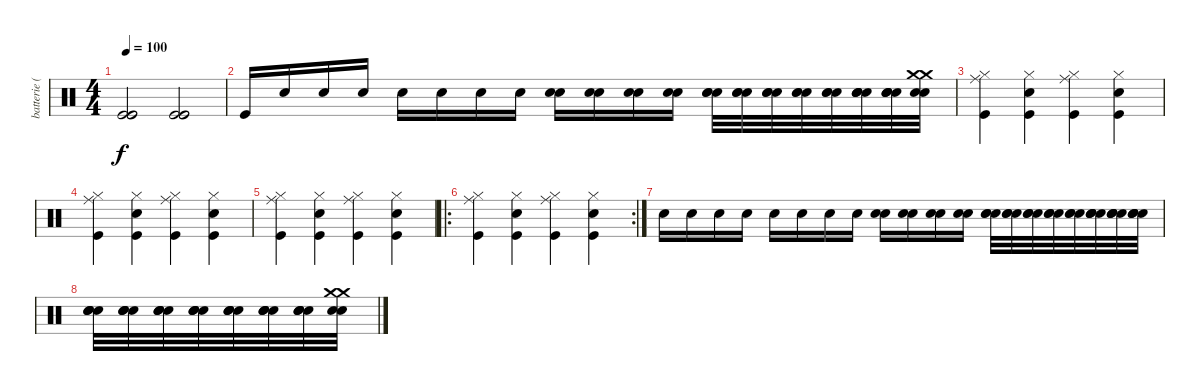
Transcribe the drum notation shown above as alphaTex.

\track ("batterie (julien)" "batterie (") {instrument percussion}
\staff {score}
\articulation defaults
\ts (4 4)
\tempo 100
\clef neutral
\ks c
("Kick (hit)" "Kick (hit)" "Kick (hit)").2{dy f} ("Kick (hit)" "Kick (hit)" "Kick (hit)").2 |
"Kick (hit)".16 "Snare (hit) 2".16 "Snare (hit) 2".16 "Snare (hit) 2".16 "Snare (hit) 2".16 "Snare (hit) 2".16 "Snare (hit) 2".16 "Snare (hit) 2".16 ("Snare (hit) 2" "Snare (hit) 2").16 ("Snare (hit) 2" "Snare (hit) 2").16 ("Snare (hit) 2" "Snare (hit) 2").16 ("Snare (hit) 2" "Snare (hit) 2").16 ("Snare (hit) 2" "Snare (hit) 2" "Snare (hit) 2").32 ("Snare (hit) 2" "Snare (hit) 2" "Snare (hit) 2").32 ("Snare (hit) 2" "Snare (hit) 2" "Snare (hit) 2").32 ("Snare (hit) 2" "Snare (hit) 2" "Snare (hit) 2").32 ("Snare (hit) 2" "Snare (hit) 2" "Snare (hit) 2").32 ("Snare (hit) 2" "Snare (hit) 2" "Snare (hit) 2" "Snare (hit) 2").32 ("Snare (hit) 2" "Snare (hit) 2" "Snare (hit) 2" "Snare (hit) 2").32 ("Crash medium (hit)" "Crash medium (hit)" "Snare (hit) 2" "Snare (hit) 2").32 |
("Ride (middle)" "Hi-Hat (closed)" "Kick (hit)").4 ("Snare (hit) 2" "Hi-Hat (closed)" "Kick (hit)").4 ("Ride (middle)" "Hi-Hat (closed)" "Kick (hit)").4 ("Snare (hit) 2" "Hi-Hat (closed)" "Kick (hit)").4 |
("Ride (middle)" "Hi-Hat (closed)" "Kick (hit)").4 ("Snare (hit) 2" "Hi-Hat (closed)" "Kick (hit)").4 ("Ride (middle)" "Hi-Hat (closed)" "Kick (hit)").4 ("Snare (hit) 2" "Hi-Hat (closed)" "Kick (hit)").4 |
("Ride (middle)" "Hi-Hat (closed)" "Kick (hit)").4 ("Snare (hit) 2" "Hi-Hat (closed)" "Kick (hit)").4 ("Ride (middle)" "Hi-Hat (closed)" "Kick (hit)").4 ("Snare (hit) 2" "Hi-Hat (closed)" "Kick (hit)").4 |
\ro
\rc 2
("Ride (middle)" "Hi-Hat (closed)" "Kick (hit)").4 ("Snare (hit) 2" "Hi-Hat (closed)" "Kick (hit)").4 ("Ride (middle)" "Hi-Hat (closed)" "Kick (hit)").4 ("Snare (hit) 2" "Hi-Hat (closed)" "Kick (hit)").4 |
"Snare (hit) 2".16 "Snare (hit) 2".16 "Snare (hit) 2".16 "Snare (hit) 2".16 "Snare (hit) 2".16 "Snare (hit) 2".16 "Snare (hit) 2".16 "Snare (hit) 2".16 ("Snare (hit) 2" "Snare (hit) 2").16 ("Snare (hit) 2" "Snare (hit) 2").16 ("Snare (hit) 2" "Snare (hit) 2").16 ("Snare (hit) 2" "Snare (hit) 2").16 ("Snare (hit) 2" "Snare (hit) 2" "Snare (hit) 2").32 ("Snare (hit) 2" "Snare (hit) 2" "Snare (hit) 2").32 ("Snare (hit) 2" "Snare (hit) 2" "Snare (hit) 2").32 ("Snare (hit) 2" "Snare (hit) 2" "Snare (hit) 2").32 ("Snare (hit) 2" "Snare (hit) 2" "Snare (hit) 2").32 ("Snare (hit) 2" "Snare (hit) 2" "Snare (hit) 2" "Snare (hit) 2").32 ("Snare (hit) 2" "Snare (hit) 2" "Snare (hit) 2" "Snare (hit) 2").32 ("Snare (hit) 2" "Snare (hit) 2" "Snare (hit) 2" "Snare (hit) 2").32 |
("Snare (hit) 2" "Snare (hit) 2" "Snare (hit) 2" "Snare (hit) 2").32 ("Snare (hit) 2" "Snare (hit) 2" "Snare (hit) 2" "Snare (hit) 2").32 ("Snare (hit) 2" "Electric Snare (hit)" "Snare (hit) 2" "Snare (hit) 2").32 ("Snare (hit) 2" "Snare (hit) 2" "Snare (hit) 2" "Snare (hit) 2").32 ("Snare (hit) 2" "Snare (hit) 2" "Snare (hit) 2" "Snare (hit) 2").32 ("Snare (hit) 2" "Snare (hit) 2" "Snare (hit) 2" "Snare (hit) 2").32 ("Snare (hit) 2" "Snare (hit) 2" "Snare (hit) 2" "Snare (hit) 2").32 ("Crash medium (hit)" "Crash medium (hit)" "Snare (hit) 2" "Snare (hit) 2").32
